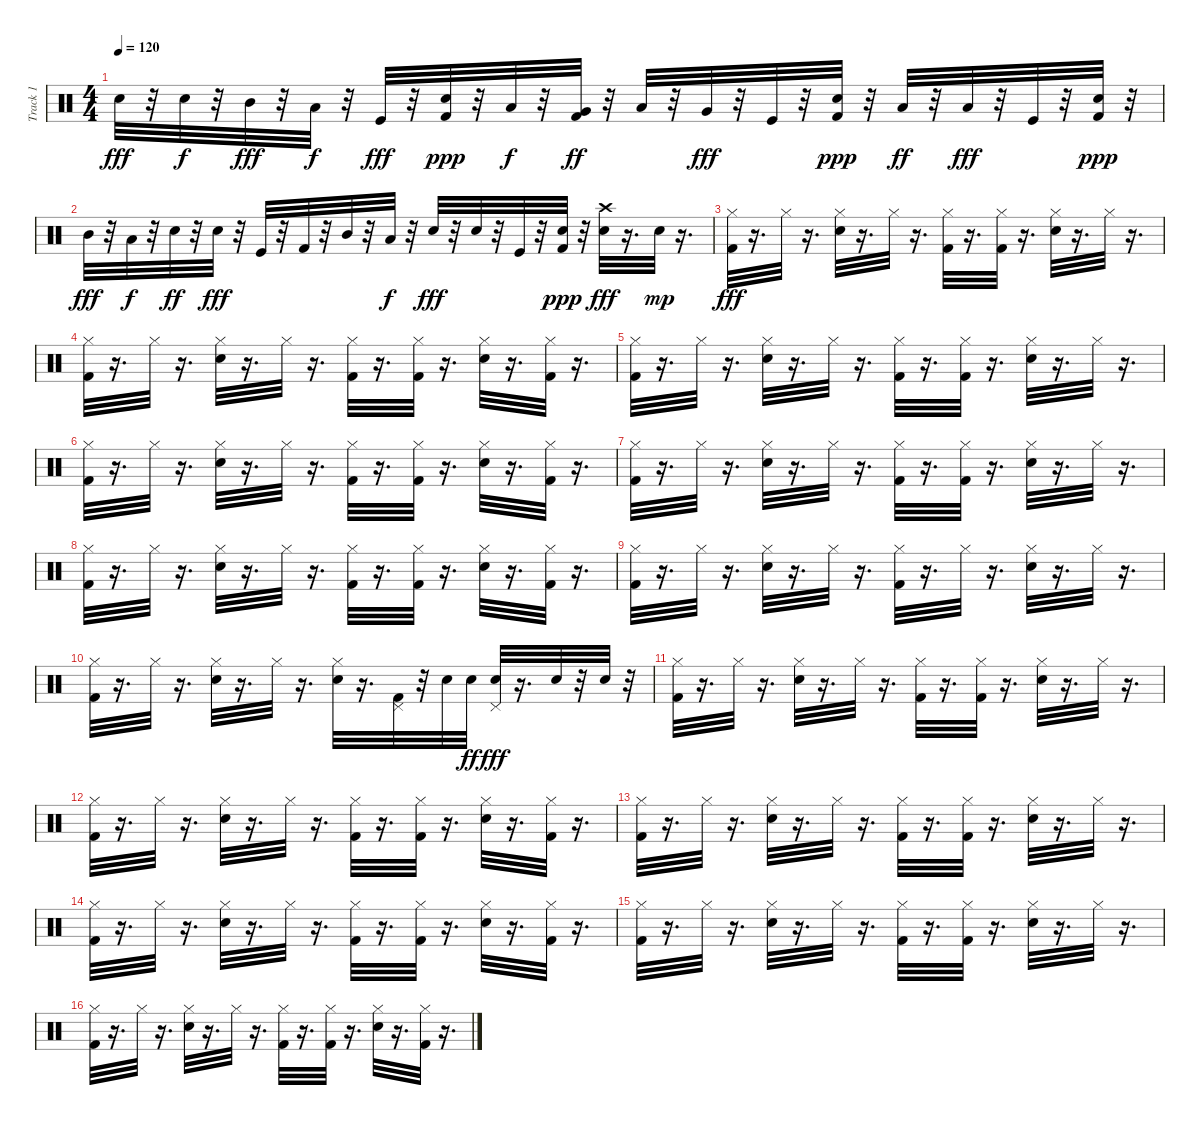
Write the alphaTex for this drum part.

\track ("Track 1" "Track 1") {instrument percussion}
\staff {score}
\articulation defaults
\ts (4 4)
\tempo 120
\clef neutral
\ks c "Snare (hit) 2".32{dy fff}
r.32 "Snare (hit) 2".32{dy f} r.32 "Mid Tom (hit)".32{dy fff} r.32 "Low Tom (hit)".32{dy f} r.32 "Kick (hit)".32{dy fff} r.32 ("Kick (hit) 2" "Snare (hit) 2").32{dy ppp} r.32 "Low Tom (hit)".32{dy f} r.32 ("Very Low Tom (hit)" "Kick (hit) 2").32{dy ff} r.32 "Low Tom (hit)".32 r.32 "Very Low Tom (hit)".32{dy fff} r.32 "Kick (hit)".32 r.32 ("Kick (hit) 2" "Electric Snare (hit)").32{dy ppp} r.32 "Low Tom (hit)".32{dy ff} r.32 "Low Floor Tom (hit)".32{dy fff} r.32 "Kick (hit)".32 r.32 ("Kick (hit) 2" "Snare (hit) 2").32{dy ppp} r.32 |
"Mid Tom (hit)".32{dy fff} r.32 "Low Tom (hit)".32{dy f} r.32 "Snare (hit) 2".32{dy ff} r.32 "Snare (hit) 2".32{dy fff} r.32 "Kick (hit)".32 r.32 "Kick (hit) 2".32 r.32 "Mid Tom (hit)".32 r.32 "Low Tom (hit)".32{dy f} r.32 "Snare (hit) 2".32{dy fff} r.32 "Snare (hit) 2".32 r.32 "Kick (hit)".32 r.32 ("Kick (hit) 2" "Electric Snare (hit)").32{dy ppp} r.32 ("Snare (hit) 2" "Crash high (hit)").32{dy fff} r.16{d} "Snare (hit) 2".32{dy mp} r.16{d} |
("Kick (hit) 2" "Hi-Hat (closed)").32{dy fff} r.16{d} "Hi-Hat (closed)".32 r.16{d} ("Hi-Hat (closed)" "Snare (hit) 2").32 r.16{d} "Hi-Hat (closed)".32 r.16{d} ("Kick (hit) 2" "Hi-Hat (closed)").32 r.16{d} ("Hi-Hat (closed)" "Kick (hit) 2").32 r.16{d} ("Hi-Hat (closed)" "Snare (hit) 2").32 r.16{d} "Hi-Hat (closed)".32 r.16{d} |
("Hi-Hat (closed)" "Kick (hit) 2").32 r.16{d} "Hi-Hat (closed)".32 r.16{d} ("Hi-Hat (closed)" "Snare (hit) 2").32 r.16{d} "Hi-Hat (closed)".32 r.16{d} ("Kick (hit) 2" "Hi-Hat (closed)").32 r.16{d} ("Hi-Hat (closed)" "Kick (hit) 2").32 r.16{d} ("Hi-Hat (closed)" "Snare (hit) 2").32 r.16{d} ("Hi-Hat (closed)" "Kick (hit) 2").32 r.16{d} |
("Kick (hit) 2" "Hi-Hat (closed)").32 r.16{d} "Hi-Hat (closed)".32 r.16{d} ("Hi-Hat (closed)" "Snare (hit) 2").32 r.16{d} "Hi-Hat (closed)".32 r.16{d} ("Kick (hit) 2" "Hi-Hat (closed)").32 r.16{d} ("Hi-Hat (closed)" "Kick (hit) 2").32 r.16{d} ("Hi-Hat (closed)" "Snare (hit) 2").32 r.16{d} "Hi-Hat (closed)".32 r.16{d} |
("Hi-Hat (closed)" "Kick (hit) 2").32 r.16{d} "Hi-Hat (closed)".32 r.16{d} ("Hi-Hat (closed)" "Snare (hit) 2").32 r.16{d} "Hi-Hat (closed)".32 r.16{d} ("Kick (hit) 2" "Hi-Hat (closed)").32 r.16{d} ("Hi-Hat (closed)" "Kick (hit) 2").32 r.16{d} ("Hi-Hat (closed)" "Snare (hit) 2").32 r.16{d} ("Hi-Hat (closed)" "Kick (hit) 2").32 r.16{d} |
("Kick (hit) 2" "Hi-Hat (closed)").32 r.16{d} "Hi-Hat (closed)".32 r.16{d} ("Hi-Hat (closed)" "Snare (hit) 2").32 r.16{d} "Hi-Hat (closed)".32 r.16{d} ("Kick (hit) 2" "Hi-Hat (closed)").32 r.16{d} ("Hi-Hat (closed)" "Kick (hit) 2").32 r.16{d} ("Hi-Hat (closed)" "Snare (hit) 2").32 r.16{d} "Hi-Hat (closed)".32 r.16{d} |
("Hi-Hat (closed)" "Kick (hit) 2").32 r.16{d} "Hi-Hat (closed)".32 r.16{d} ("Hi-Hat (closed)" "Snare (hit) 2").32 r.16{d} "Hi-Hat (closed)".32 r.16{d} ("Kick (hit) 2" "Hi-Hat (closed)").32 r.16{d} ("Hi-Hat (closed)" "Kick (hit) 2").32 r.16{d} ("Hi-Hat (closed)" "Snare (hit) 2").32 r.16{d} ("Hi-Hat (closed)" "Kick (hit) 2").32 r.16{d} |
("Kick (hit) 2" "Hi-Hat (closed)").32 r.16{d} "Hi-Hat (closed)".32 r.16{d} ("Hi-Hat (closed)" "Snare (hit) 2").32 r.16{d} "Hi-Hat (closed)".32 r.16{d} ("Kick (hit) 2" "Hi-Hat (closed)").32 r.16{d} "Hi-Hat (closed)".32 r.16{d} ("Snare (hit) 2" "Hi-Hat (closed)").32 r.16{d} "Hi-Hat (closed)".32 r.16{d} |
("Hi-Hat (closed)" "Kick (hit) 2").32 r.16{d} "Hi-Hat (closed)".32 r.16{d} ("Hi-Hat (closed)" "Snare (hit) 2").32 r.16{d} "Hi-Hat (closed)".32 r.16{d} ("Snare (hit) 2" "Hi-Hat (closed)").32 r.16{d} ("Kick (hit) 2" "Pedal Hi-Hat (hit)").32 r.32 "Snare (hit) 2".32 "Snare (hit) 2".32{dy ff} ("Pedal Hi-Hat (hit)" "Snare (hit) 2").32{dy fff} r.16{d} "Snare (hit) 2".32 r.32 "Snare (hit) 2".32 r.32 |
("Kick (hit) 2" "Hi-Hat (closed)").32 r.16{d} "Hi-Hat (closed)".32 r.16{d} ("Hi-Hat (closed)" "Snare (hit) 2").32 r.16{d} "Hi-Hat (closed)".32 r.16{d} ("Kick (hit) 2" "Hi-Hat (closed)").32 r.16{d} ("Hi-Hat (closed)" "Kick (hit) 2").32 r.16{d} ("Hi-Hat (closed)" "Snare (hit) 2").32 r.16{d} "Hi-Hat (closed)".32 r.16{d} |
("Hi-Hat (closed)" "Kick (hit) 2").32 r.16{d} "Hi-Hat (closed)".32 r.16{d} ("Hi-Hat (closed)" "Snare (hit) 2").32 r.16{d} "Hi-Hat (closed)".32 r.16{d} ("Kick (hit) 2" "Hi-Hat (closed)").32 r.16{d} ("Hi-Hat (closed)" "Kick (hit) 2").32 r.16{d} ("Hi-Hat (closed)" "Snare (hit) 2").32 r.16{d} ("Hi-Hat (closed)" "Kick (hit) 2").32 r.16{d} |
("Kick (hit) 2" "Hi-Hat (closed)").32 r.16{d} "Hi-Hat (closed)".32 r.16{d} ("Hi-Hat (closed)" "Snare (hit) 2").32 r.16{d} "Hi-Hat (closed)".32 r.16{d} ("Kick (hit) 2" "Hi-Hat (closed)").32 r.16{d} ("Hi-Hat (closed)" "Kick (hit) 2").32 r.16{d} ("Hi-Hat (closed)" "Snare (hit) 2").32 r.16{d} "Hi-Hat (closed)".32 r.16{d} |
("Hi-Hat (closed)" "Kick (hit) 2").32 r.16{d} "Hi-Hat (closed)".32 r.16{d} ("Hi-Hat (closed)" "Snare (hit) 2").32 r.16{d} "Hi-Hat (closed)".32 r.16{d} ("Kick (hit) 2" "Hi-Hat (closed)").32 r.16{d} ("Hi-Hat (closed)" "Kick (hit) 2").32 r.16{d} ("Hi-Hat (closed)" "Snare (hit) 2").32 r.16{d} ("Hi-Hat (closed)" "Kick (hit) 2").32 r.16{d} |
("Kick (hit) 2" "Hi-Hat (closed)").32 r.16{d} "Hi-Hat (closed)".32 r.16{d} ("Hi-Hat (closed)" "Snare (hit) 2").32 r.16{d} "Hi-Hat (closed)".32 r.16{d} ("Kick (hit) 2" "Hi-Hat (closed)").32 r.16{d} ("Hi-Hat (closed)" "Kick (hit) 2").32 r.16{d} ("Hi-Hat (closed)" "Snare (hit) 2").32 r.16{d} "Hi-Hat (closed)".32 r.16{d} |
("Hi-Hat (closed)" "Kick (hit) 2").32 r.16{d} "Hi-Hat (closed)".32 r.16{d} ("Hi-Hat (closed)" "Snare (hit) 2").32 r.16{d} "Hi-Hat (closed)".32 r.16{d} ("Kick (hit) 2" "Hi-Hat (closed)").32 r.16{d} ("Hi-Hat (closed)" "Kick (hit) 2").32 r.16{d} ("Hi-Hat (closed)" "Snare (hit) 2").32 r.16{d} ("Hi-Hat (closed)" "Kick (hit) 2").32 r.16{d}
